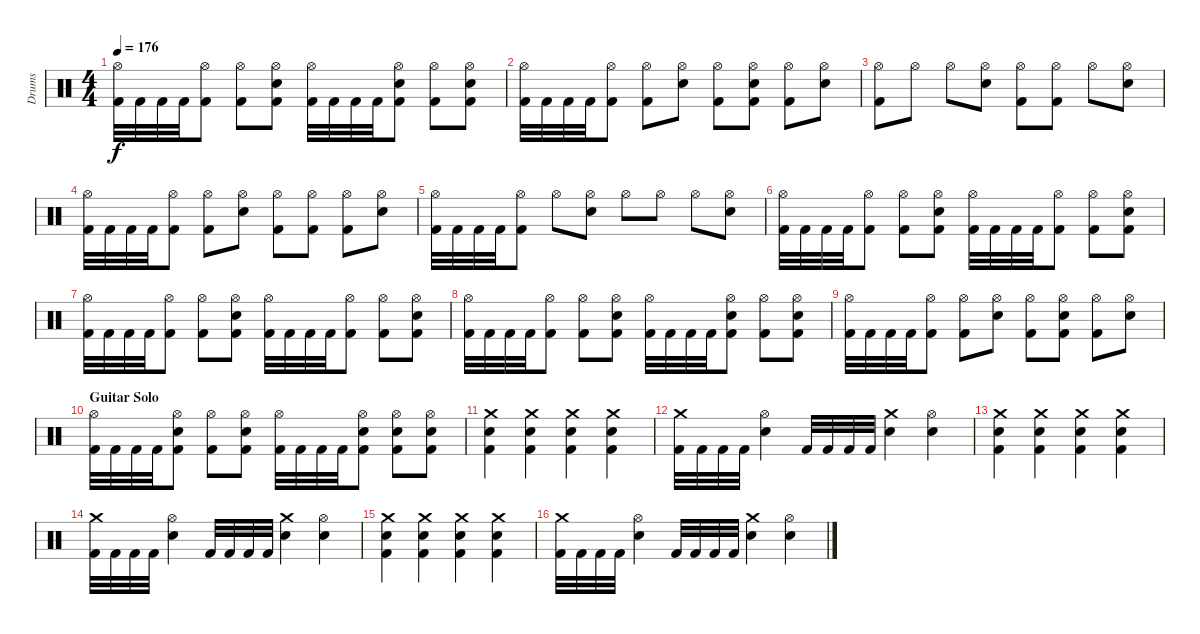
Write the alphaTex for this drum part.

\track ("Drums" "Drums") {instrument percussion}
\staff {score}
\articulation defaults
\ts (4 4)
\tempo 176
\clef neutral
\ks c
("Hi-Hat (open)" "Kick (hit) 2").32{dy f} "Kick (hit) 2".32 "Kick (hit) 2".32 "Kick (hit) 2".32 ("Hi-Hat (open)" "Kick (hit) 2").8 ("Hi-Hat (open)" "Kick (hit) 2").8 ("Hi-Hat (open)" "Snare (hit) 2" "Kick (hit) 2").8 ("Hi-Hat (open)" "Kick (hit) 2").32 "Kick (hit) 2".32 "Kick (hit) 2".32 "Kick (hit) 2".32 ("Hi-Hat (open)" "Snare (hit) 2" "Kick (hit) 2").8 ("Hi-Hat (open)" "Kick (hit) 2").8 ("Hi-Hat (open)" "Snare (hit) 2" "Kick (hit) 2").8 |
("Hi-Hat (open)" "Kick (hit) 2").32 "Kick (hit) 2".32 "Kick (hit) 2".32 "Kick (hit) 2".32 ("Hi-Hat (open)" "Kick (hit) 2").8 ("Hi-Hat (open)" "Kick (hit) 2").8 ("Hi-Hat (open)" "Snare (hit) 2").8 ("Hi-Hat (open)" "Kick (hit) 2").8 ("Hi-Hat (open)" "Snare (hit) 2" "Kick (hit) 2").8 ("Hi-Hat (open)" "Kick (hit) 2").8 ("Hi-Hat (open)" "Snare (hit) 2").8 |
("Hi-Hat (open)" "Kick (hit) 2").8 "Hi-Hat (open)".8 "Hi-Hat (open)".8 ("Hi-Hat (open)" "Snare (hit) 2").8 ("Hi-Hat (open)" "Kick (hit) 2").8 ("Hi-Hat (open)" "Kick (hit) 2").8 "Hi-Hat (open)".8 ("Hi-Hat (open)" "Snare (hit) 2").8 |
("Hi-Hat (open)" "Kick (hit) 2").32 "Kick (hit) 2".32 "Kick (hit) 2".32 "Kick (hit) 2".32 ("Hi-Hat (open)" "Kick (hit) 2").8 ("Hi-Hat (open)" "Kick (hit) 2").8 ("Hi-Hat (open)" "Snare (hit) 2").8 ("Hi-Hat (open)" "Kick (hit) 2").8 ("Hi-Hat (open)" "Kick (hit) 2").8 ("Hi-Hat (open)" "Kick (hit) 2").8 ("Hi-Hat (open)" "Snare (hit) 2").8 |
("Hi-Hat (open)" "Kick (hit) 2").32 "Kick (hit) 2".32 "Kick (hit) 2".32 "Kick (hit) 2".32 ("Hi-Hat (open)" "Kick (hit) 2").8 "Hi-Hat (open)".8 ("Hi-Hat (open)" "Snare (hit) 2").8 "Hi-Hat (open)".8 "Hi-Hat (open)".8 "Hi-Hat (open)".8 ("Hi-Hat (open)" "Snare (hit) 2").8 |
("Hi-Hat (open)" "Kick (hit) 2").32 "Kick (hit) 2".32 "Kick (hit) 2".32 "Kick (hit) 2".32 ("Hi-Hat (open)" "Kick (hit) 2").8 ("Hi-Hat (open)" "Kick (hit) 2").8 ("Hi-Hat (open)" "Snare (hit) 2" "Kick (hit) 2").8 ("Hi-Hat (open)" "Kick (hit) 2").32 "Kick (hit) 2".32 "Kick (hit) 2".32 "Kick (hit) 2".32 ("Hi-Hat (open)" "Kick (hit) 2").8 ("Hi-Hat (open)" "Kick (hit) 2").8 ("Hi-Hat (open)" "Snare (hit) 2" "Kick (hit) 2").8 |
("Hi-Hat (open)" "Kick (hit) 2").32 "Kick (hit) 2".32 "Kick (hit) 2".32 "Kick (hit) 2".32 ("Hi-Hat (open)" "Kick (hit) 2").8 ("Hi-Hat (open)" "Kick (hit) 2").8 ("Hi-Hat (open)" "Snare (hit) 2" "Kick (hit) 2").8 ("Hi-Hat (open)" "Kick (hit) 2").32 "Kick (hit) 2".32 "Kick (hit) 2".32 "Kick (hit) 2".32 ("Hi-Hat (open)" "Kick (hit) 2").8 ("Hi-Hat (open)" "Kick (hit) 2").8 ("Hi-Hat (open)" "Snare (hit) 2" "Kick (hit) 2").8 |
("Hi-Hat (open)" "Kick (hit) 2").32 "Kick (hit) 2".32 "Kick (hit) 2".32 "Kick (hit) 2".32 ("Hi-Hat (open)" "Kick (hit) 2").8 ("Hi-Hat (open)" "Kick (hit) 2").8 ("Hi-Hat (open)" "Snare (hit) 2" "Kick (hit) 2").8 ("Hi-Hat (open)" "Kick (hit) 2").32 "Kick (hit) 2".32 "Kick (hit) 2".32 "Kick (hit) 2".32 ("Hi-Hat (open)" "Snare (hit) 2" "Kick (hit) 2").8 ("Hi-Hat (open)" "Kick (hit) 2").8 ("Hi-Hat (open)" "Snare (hit) 2" "Kick (hit) 2").8 |
("Hi-Hat (open)" "Kick (hit) 2").32 "Kick (hit) 2".32 "Kick (hit) 2".32 "Kick (hit) 2".32 ("Hi-Hat (open)" "Kick (hit) 2").8 ("Hi-Hat (open)" "Kick (hit) 2").8 ("Hi-Hat (open)" "Snare (hit) 2").8 ("Hi-Hat (open)" "Kick (hit) 2").8 ("Hi-Hat (open)" "Snare (hit) 2" "Kick (hit) 2").8 ("Hi-Hat (open)" "Kick (hit) 2").8 ("Hi-Hat (open)" "Snare (hit) 2").8 |
\section ("" "Guitar Solo")
("Hi-Hat (open)" "Kick (hit) 2").32 "Kick (hit) 2".32 "Kick (hit) 2".32 "Kick (hit) 2".32 ("Hi-Hat (open)" "Snare (hit) 2" "Kick (hit) 2").8 ("Hi-Hat (open)" "Kick (hit) 2").8 ("Hi-Hat (open)" "Snare (hit) 2" "Kick (hit) 2").8 ("Hi-Hat (open)" "Kick (hit) 2").32 "Kick (hit) 2".32 "Kick (hit) 2".32 "Kick (hit) 2".32 ("Hi-Hat (open)" "Snare (hit) 2" "Kick (hit) 2").8 ("Hi-Hat (open)" "Snare (hit) 2" "Kick (hit) 2").8 ("Hi-Hat (open)" "Snare (hit) 2" "Kick (hit) 2").8 |
("Crash medium (hit)" "Snare (hit) 2" "Kick (hit) 2").4 ("Crash medium (hit)" "Snare (hit) 2" "Kick (hit) 2").4 ("Crash medium (hit)" "Snare (hit) 2" "Kick (hit) 2").4 ("Crash medium (hit)" "Snare (hit) 2" "Kick (hit) 2").4 |
("Crash medium (hit)" "Kick (hit) 2").32 "Kick (hit) 2".32 "Kick (hit) 2".32 "Kick (hit) 2".32 ("Hi-Hat (open)" "Snare (hit) 2").4 "Kick (hit) 2".32 "Kick (hit) 2".32 "Kick (hit) 2".32 "Kick (hit) 2".32 ("Crash medium (hit)" "Snare (hit) 2").4 ("Hi-Hat (open)" "Snare (hit) 2").4 |
("Crash medium (hit)" "Snare (hit) 2" "Kick (hit) 2").4 ("Crash medium (hit)" "Snare (hit) 2" "Kick (hit) 2").4 ("Crash medium (hit)" "Snare (hit) 2" "Kick (hit) 2").4 ("Crash medium (hit)" "Snare (hit) 2" "Kick (hit) 2").4 |
("Crash medium (hit)" "Kick (hit) 2").32 "Kick (hit) 2".32 "Kick (hit) 2".32 "Kick (hit) 2".32 ("Hi-Hat (open)" "Snare (hit) 2").4 "Kick (hit) 2".32 "Kick (hit) 2".32 "Kick (hit) 2".32 "Kick (hit) 2".32 ("Crash medium (hit)" "Snare (hit) 2").4 ("Hi-Hat (open)" "Snare (hit) 2").4 |
("Crash medium (hit)" "Snare (hit) 2" "Kick (hit) 2").4 ("Crash medium (hit)" "Snare (hit) 2" "Kick (hit) 2").4 ("Crash medium (hit)" "Snare (hit) 2" "Kick (hit) 2").4 ("Crash medium (hit)" "Snare (hit) 2" "Kick (hit) 2").4 |
("Crash medium (hit)" "Kick (hit) 2").32 "Kick (hit) 2".32 "Kick (hit) 2".32 "Kick (hit) 2".32 ("Hi-Hat (open)" "Snare (hit) 2").4 "Kick (hit) 2".32 "Kick (hit) 2".32 "Kick (hit) 2".32 "Kick (hit) 2".32 ("Crash medium (hit)" "Snare (hit) 2").4 ("Hi-Hat (open)" "Snare (hit) 2").4
